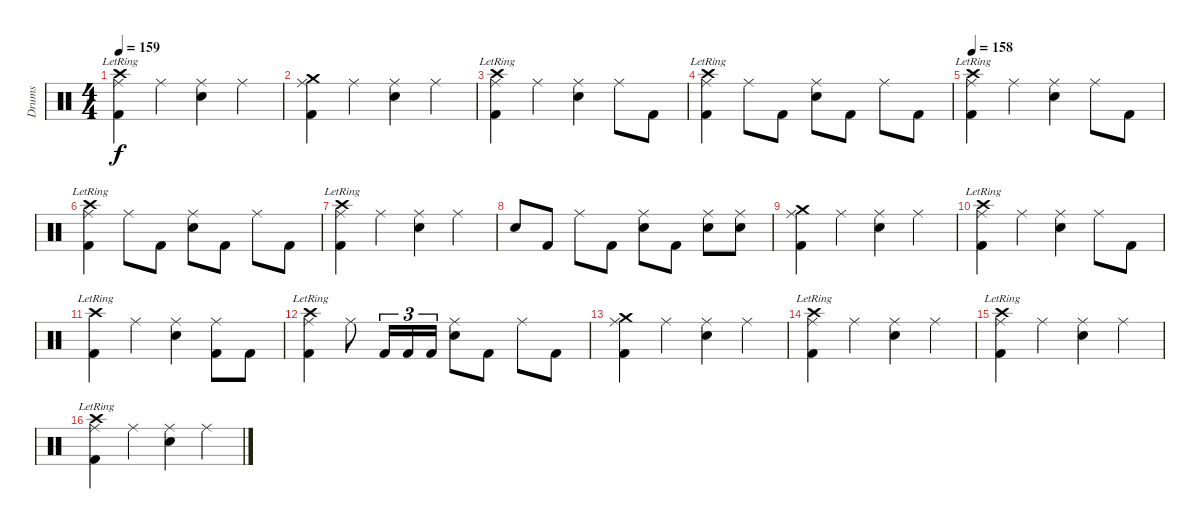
\track ("Drums" "Drums") {instrument percussion}
\staff {score}
\articulation defaults
\ts (4 4)
\tempo 159
\clef neutral
\ks c
("Crash high (hit)"{lr} "Ride (middle)" "Kick (hit) 2").4{dy f} "Ride (middle)".4 ("Ride (middle)" "Snare (hit) 2").4 "Ride (middle)".4 |
("Crash medium (hit)" "Ride (middle)" "Kick (hit) 2").4 "Ride (middle)".4 ("Ride (middle)" "Snare (hit) 2").4 "Ride (middle)".4 |
("Crash high (hit)"{lr} "Ride (middle)" "Kick (hit) 2").4 "Ride (middle)".4 ("Ride (middle)" "Snare (hit) 2").4 "Ride (middle)".8 "Kick (hit) 2".8 |
("Crash high (hit)"{lr} "Ride (middle)" "Kick (hit) 2").4 "Ride (middle)".8 "Kick (hit) 2".8 ("Ride (middle)" "Snare (hit) 2").8 "Kick (hit) 2".8 "Ride (middle)".8 "Kick (hit) 2".8 |
\tempo 158
("Crash high (hit)"{lr} "Ride (middle)" "Kick (hit) 2").4 "Ride (middle)".4 ("Ride (middle)" "Snare (hit) 2").4 "Ride (middle)".8 "Kick (hit) 2".8 |
("Crash high (hit)"{lr} "Ride (middle)" "Kick (hit) 2").4 "Ride (middle)".8 "Kick (hit) 2".8 ("Ride (middle)" "Snare (hit) 2").8 "Kick (hit) 2".8 "Ride (middle)".8 "Kick (hit) 2".8 |
("Crash high (hit)"{lr} "Ride (middle)" "Kick (hit) 2").4 "Ride (middle)".4 ("Ride (middle)" "Snare (hit) 2").4 "Ride (middle)".4 |
"Snare (hit) 2".8 "Kick (hit) 2".8 "Ride (middle)".8 "Kick (hit) 2".8 ("Ride (middle)" "Snare (hit) 2").8 "Kick (hit) 2".8 ("Ride (middle)" "Snare (hit) 2").8 ("Ride (middle)" "Snare (hit) 2").8 |
("Crash medium (hit)" "Ride (middle)" "Kick (hit) 2").4 "Ride (middle)".4 ("Ride (middle)" "Snare (hit) 2").4 "Ride (middle)".4 |
("Crash high (hit)"{lr} "Ride (middle)" "Kick (hit) 2").4 "Ride (middle)".4 ("Ride (middle)" "Snare (hit) 2").4 "Ride (middle)".8 "Kick (hit) 2".8 |
("Crash high (hit)"{lr} "Kick (hit) 2").4 "Ride (middle)".4 ("Ride (middle)" "Snare (hit) 2").4 ("Ride (middle)" "Kick (hit) 2").8 "Kick (hit) 2".8 |
("Crash high (hit)"{lr} "Ride (middle)" "Kick (hit) 2").4 "Ride (middle)".8 "Kick (hit) 2".16{tu (3 2)} "Kick (hit) 2".16{tu (3 2)} "Kick (hit) 2".16{tu (3 2)} ("Ride (middle)" "Snare (hit) 2").8 "Kick (hit) 2".8 "Ride (middle)".8 "Kick (hit) 2".8 |
("Crash medium (hit)" "Ride (middle)" "Kick (hit) 2").4 "Ride (middle)".4 ("Ride (middle)" "Snare (hit) 2").4 "Ride (middle)".4 |
("Crash high (hit)"{lr} "Ride (middle)" "Kick (hit) 2").4 "Ride (middle)".4 ("Ride (middle)" "Snare (hit) 2").4 "Ride (middle)".4 |
("Crash high (hit)"{lr} "Ride (middle)" "Kick (hit) 2").4 "Ride (middle)".4 ("Ride (middle)" "Snare (hit) 2").4 "Ride (middle)".4 |
("Crash high (hit)"{lr} "Ride (middle)" "Kick (hit) 2").4 "Ride (middle)".4 ("Ride (middle)" "Snare (hit) 2").4 "Ride (middle)".4
